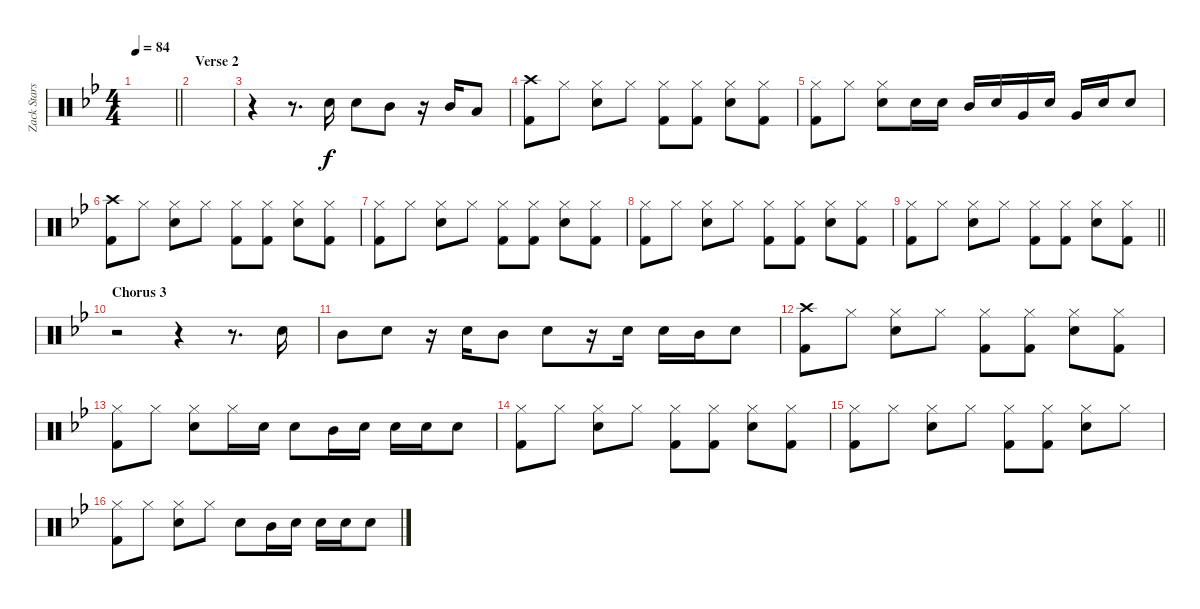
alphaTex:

\track ("Zack Starskey" "Zack Stars") {instrument percussion}
\staff {score}
\articulation defaults
\ts (4 4)
\tempo 84
\clef neutral
\barLineRight lightlight
\ks bb
|
\section ("" "Verse 2")
|
r.4 r.8{d} "Snare (hit) 2".16 "Snare (hit) 2".8 "Mid Tom (hit)".8 r.16 "Mid Tom (hit)".16 "Low Floor Tom (hit)".8 |
("Crash high (hit)" "Kick (hit) 2").8 "Hi-Hat (closed)".8 ("Hi-Hat (closed)" "Snare (hit) 2").8 "Hi-Hat (closed)".8 ("Hi-Hat (closed)" "Kick (hit) 2").8 ("Hi-Hat (closed)" "Kick (hit) 2").8 ("Hi-Hat (closed)" "Snare (hit) 2").8 ("Hi-Hat (closed)" "Kick (hit) 2").8 |
("Hi-Hat (closed)" "Kick (hit) 2").8 "Hi-Hat (closed)".8 ("Hi-Hat (closed)" "Snare (hit) 2").8 "Snare (hit) 2".16 "Snare (hit) 2".16 "Mid Tom (hit)".16 "Snare (hit) 2".16 "Very Low Tom (hit)".16 "Snare (hit) 2".16 "Very Low Tom (hit)".16 "Snare (hit) 2".16 "Snare (hit) 2".8 |
("Crash high (hit)" "Kick (hit) 2").8 "Hi-Hat (closed)".8 ("Hi-Hat (closed)" "Snare (hit) 2").8 "Hi-Hat (closed)".8 ("Hi-Hat (closed)" "Kick (hit) 2").8 ("Hi-Hat (closed)" "Kick (hit) 2").8 ("Hi-Hat (closed)" "Snare (hit) 2").8 ("Hi-Hat (closed)" "Kick (hit) 2").8 |
("Hi-Hat (closed)" "Kick (hit) 2").8 "Hi-Hat (closed)".8 ("Hi-Hat (closed)" "Snare (hit) 2").8 "Hi-Hat (closed)".8 ("Hi-Hat (closed)" "Kick (hit) 2").8 ("Hi-Hat (closed)" "Kick (hit) 2").8 ("Hi-Hat (closed)" "Snare (hit) 2").8 ("Hi-Hat (closed)" "Kick (hit) 2").8 |
("Hi-Hat (closed)" "Kick (hit) 2").8 "Hi-Hat (closed)".8 ("Hi-Hat (closed)" "Snare (hit) 2").8 "Hi-Hat (closed)".8 ("Hi-Hat (closed)" "Kick (hit) 2").8 ("Hi-Hat (closed)" "Kick (hit) 2").8 ("Hi-Hat (closed)" "Snare (hit) 2").8 ("Hi-Hat (closed)" "Kick (hit) 2").8 |
\barLineRight lightlight
("Hi-Hat (closed)" "Kick (hit) 2").8 "Hi-Hat (closed)".8 ("Hi-Hat (closed)" "Snare (hit) 2").8 "Hi-Hat (closed)".8 ("Hi-Hat (closed)" "Kick (hit) 2").8 ("Hi-Hat (closed)" "Kick (hit) 2").8 ("Hi-Hat (closed)" "Snare (hit) 2").8 ("Hi-Hat (closed)" "Kick (hit) 2").8 |
\section ("" "Chorus 3")
r.2 r.4 r.8{d} "Snare (hit) 2".16 |
"Mid Tom (hit)".8 "Snare (hit) 2".8 r.16 "Snare (hit) 2".16 "Mid Tom (hit)".8 "Snare (hit) 2".8 r.16 "Snare (hit) 2".16 "Snare (hit) 2".16 "Mid Tom (hit)".16 "Snare (hit) 2".8 |
("Crash high (hit)" "Kick (hit) 2").8 "Hi-Hat (closed)".8 ("Hi-Hat (closed)" "Snare (hit) 2").8 "Hi-Hat (closed)".8 ("Hi-Hat (closed)" "Kick (hit) 2").8 ("Hi-Hat (closed)" "Kick (hit) 2").8 ("Hi-Hat (closed)" "Snare (hit) 2").8 ("Hi-Hat (closed)" "Kick (hit) 2").8 |
("Hi-Hat (closed)" "Kick (hit) 2").8 "Hi-Hat (closed)".8 ("Hi-Hat (closed)" "Snare (hit) 2").8 "Hi-Hat (closed)".16 "Snare (hit) 2".16 "Snare (hit) 2".8 "Mid Tom (hit)".16 "Snare (hit) 2".16 "Snare (hit) 2".16 "Snare (hit) 2".16 "Snare (hit) 2".8 |
("Hi-Hat (closed)" "Kick (hit) 2").8 "Hi-Hat (closed)".8 ("Hi-Hat (closed)" "Snare (hit) 2").8 "Hi-Hat (closed)".8 ("Hi-Hat (closed)" "Kick (hit) 2").8 ("Hi-Hat (closed)" "Kick (hit) 2").8 ("Hi-Hat (closed)" "Snare (hit) 2").8 ("Hi-Hat (closed)" "Kick (hit) 2").8 |
("Hi-Hat (closed)" "Kick (hit) 2").8 "Hi-Hat (closed)".8 ("Hi-Hat (closed)" "Snare (hit) 2").8 "Hi-Hat (closed)".8 ("Hi-Hat (closed)" "Kick (hit) 2").8 ("Hi-Hat (closed)" "Kick (hit) 2").8 ("Hi-Hat (closed)" "Snare (hit) 2").8 "Hi-Hat (closed)".8 |
("Hi-Hat (closed)" "Kick (hit) 2").8 "Hi-Hat (closed)".8 ("Hi-Hat (closed)" "Snare (hit) 2").8 "Hi-Hat (closed)".8 "Snare (hit) 2".8 "Mid Tom (hit)".16 "Snare (hit) 2".16 "Snare (hit) 2".16 "Snare (hit) 2".16 "Snare (hit) 2".8
